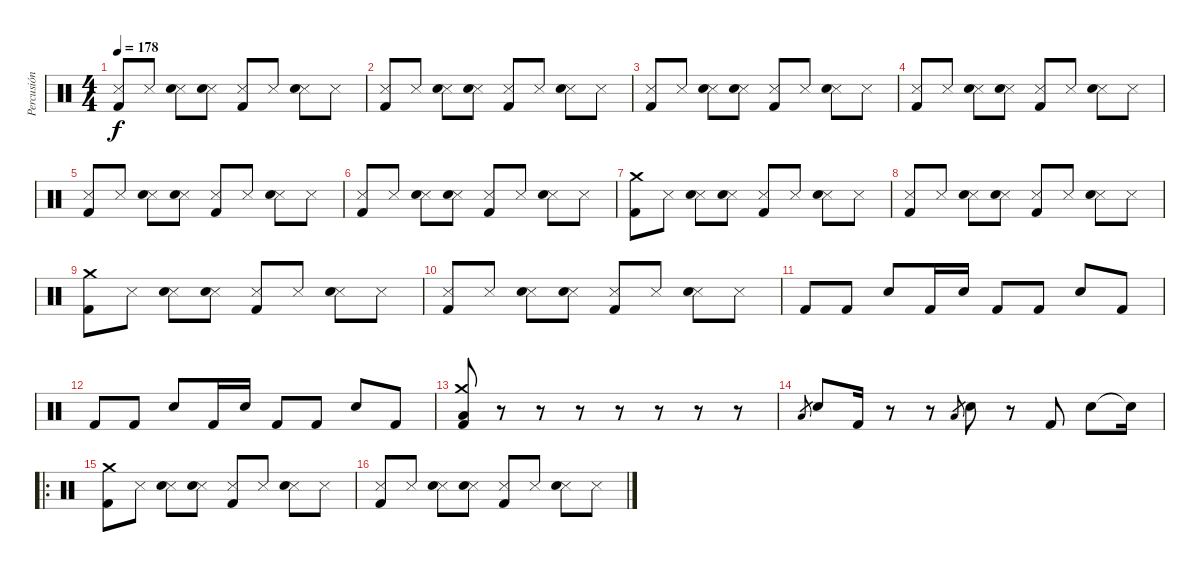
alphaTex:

\track ("Percusión" "Percusión") {instrument percussion}
\staff {score}
\articulation defaults
\ts (4 4)
\tempo 178
\clef neutral
\ks c
("Snare (side stick) 3" "Kick (hit) 2").8{dy f} "Snare (side stick) 3".8 ("Snare (side stick) 3" "Electric Snare (hit)").8 ("Snare (side stick) 3" "Electric Snare (hit)").8 ("Snare (side stick) 3" "Kick (hit) 2").8 "Snare (side stick) 3".8 ("Snare (side stick) 3" "Electric Snare (hit)").8 "Snare (side stick) 3".8 |
("Snare (side stick) 3" "Kick (hit) 2").8 "Snare (side stick) 3".8 ("Snare (side stick) 3" "Electric Snare (hit)").8 ("Snare (side stick) 3" "Electric Snare (hit)").8 ("Snare (side stick) 3" "Kick (hit) 2").8 "Snare (side stick) 3".8 ("Snare (side stick) 3" "Electric Snare (hit)").8 "Snare (side stick) 3".8 |
("Snare (side stick) 3" "Kick (hit) 2").8 "Snare (side stick) 3".8 ("Snare (side stick) 3" "Electric Snare (hit)").8 ("Snare (side stick) 3" "Electric Snare (hit)").8 ("Snare (side stick) 3" "Kick (hit) 2").8 "Snare (side stick) 3".8 ("Snare (side stick) 3" "Electric Snare (hit)").8 "Snare (side stick) 3".8 |
("Snare (side stick) 3" "Kick (hit) 2").8 "Snare (side stick) 3".8 ("Snare (side stick) 3" "Electric Snare (hit)").8 ("Snare (side stick) 3" "Electric Snare (hit)").8 ("Snare (side stick) 3" "Kick (hit) 2").8 "Snare (side stick) 3".8 ("Snare (side stick) 3" "Electric Snare (hit)").8 "Snare (side stick) 3".8 |
("Snare (side stick) 3" "Kick (hit) 2").8 "Snare (side stick) 3".8 ("Snare (side stick) 3" "Electric Snare (hit)").8 ("Snare (side stick) 3" "Electric Snare (hit)").8 ("Snare (side stick) 3" "Kick (hit) 2").8 "Snare (side stick) 3".8 ("Snare (side stick) 3" "Electric Snare (hit)").8 "Snare (side stick) 3".8 |
("Snare (side stick) 3" "Kick (hit) 2").8 "Snare (side stick) 3".8 ("Snare (side stick) 3" "Electric Snare (hit)").8 ("Snare (side stick) 3" "Electric Snare (hit)").8 ("Snare (side stick) 3" "Kick (hit) 2").8 "Snare (side stick) 3".8 ("Snare (side stick) 3" "Electric Snare (hit)").8 "Snare (side stick) 3".8 |
("Crash medium (hit)" "Kick (hit) 2").8 "Snare (side stick) 3".8 ("Snare (side stick) 3" "Electric Snare (hit)").8 ("Snare (side stick) 3" "Electric Snare (hit)").8 ("Snare (side stick) 3" "Kick (hit) 2").8 "Snare (side stick) 3".8 ("Snare (side stick) 3" "Electric Snare (hit)").8 "Snare (side stick) 3".8 |
("Snare (side stick) 3" "Kick (hit) 2").8 "Snare (side stick) 3".8 ("Snare (side stick) 3" "Electric Snare (hit)").8 ("Snare (side stick) 3" "Electric Snare (hit)").8 ("Snare (side stick) 3" "Kick (hit) 2").8 "Snare (side stick) 3".8 ("Snare (side stick) 3" "Electric Snare (hit)").8 "Snare (side stick) 3".8 |
("Crash medium (hit)" "Kick (hit) 2").8 "Snare (side stick) 3".8 ("Snare (side stick) 3" "Electric Snare (hit)").8 ("Snare (side stick) 3" "Electric Snare (hit)").8 ("Snare (side stick) 3" "Kick (hit) 2").8 "Snare (side stick) 3".8 ("Snare (side stick) 3" "Electric Snare (hit)").8 "Snare (side stick) 3".8 |
("Snare (side stick) 3" "Kick (hit) 2").8 "Snare (side stick) 3".8 ("Snare (side stick) 3" "Electric Snare (hit)").8 ("Snare (side stick) 3" "Electric Snare (hit)").8 ("Snare (side stick) 3" "Kick (hit) 2").8 "Snare (side stick) 3".8 ("Snare (side stick) 3" "Electric Snare (hit)").8 "Snare (side stick) 3".8 |
"Kick (hit) 2".8 "Kick (hit) 2".8 "Electric Snare (hit)".8 "Kick (hit) 2".16 "Electric Snare (hit)".16 "Kick (hit) 2".8 "Kick (hit) 2".8 "Electric Snare (hit)".8 "Kick (hit) 2".8 |
"Kick (hit) 2".8 "Kick (hit) 2".8 "Electric Snare (hit)".8 "Kick (hit) 2".16 "Electric Snare (hit)".16 "Kick (hit) 2".8 "Kick (hit) 2".8 "Electric Snare (hit)".8 "Kick (hit) 2".8 |
("Crash medium (hit)" "Low Floor Tom (hit)" "Kick (hit) 2").8 r.8 r.8 r.8 r.8 r.8 r.8 r.8 |
"Low Floor Tom (hit)".8{gr} "Electric Snare (hit)".8 "Kick (hit) 2".16 r.8 r.8 "Low Floor Tom (hit)".8{gr} "Electric Snare (hit)".8 r.8 "Kick (hit) 2".8 "Electric Snare (hit)".8 "Snare (hit)"{t}.16 |
\ro
("Crash medium (hit)" "Kick (hit) 2").8 "Snare (side stick) 3".8 ("Snare (side stick) 3" "Electric Snare (hit)").8 ("Snare (side stick) 3" "Electric Snare (hit)").8 ("Snare (side stick) 3" "Kick (hit) 2").8 "Snare (side stick) 3".8 ("Snare (side stick) 3" "Electric Snare (hit)").8 "Snare (side stick) 3".8 |
("Snare (side stick) 3" "Kick (hit) 2").8 "Snare (side stick) 3".8 ("Snare (side stick) 3" "Electric Snare (hit)").8 ("Snare (side stick) 3" "Electric Snare (hit)").8 ("Snare (side stick) 3" "Kick (hit) 2").8 "Snare (side stick) 3".8 ("Snare (side stick) 3" "Electric Snare (hit)").8 "Snare (side stick) 3".8
